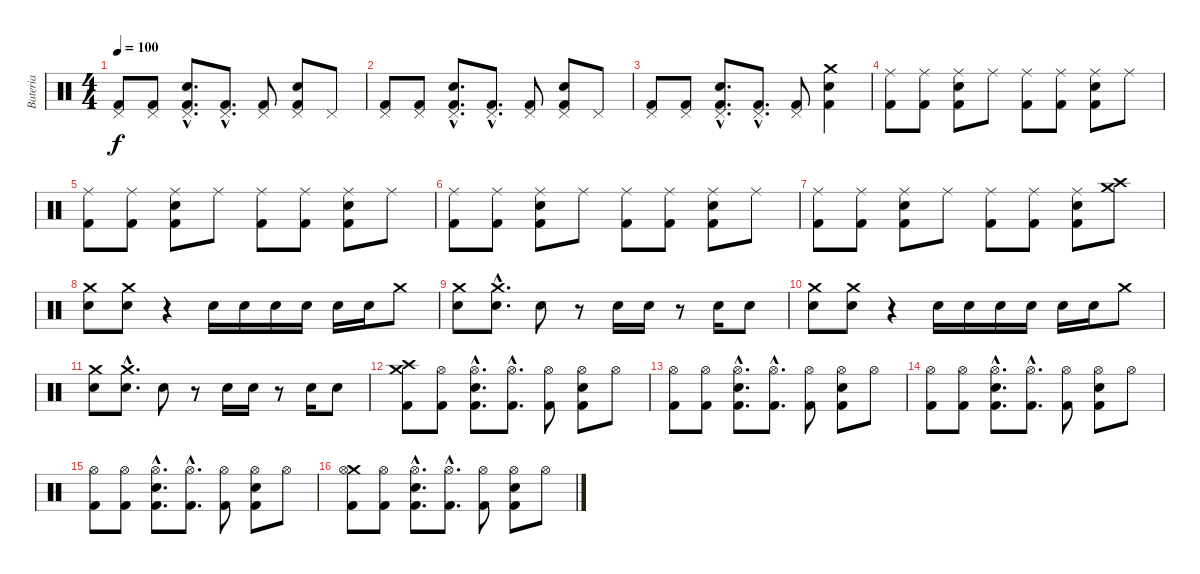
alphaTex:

\track ("Bateria" "Bateria") {instrument percussion}
\staff {score}
\articulation defaults
\ts (4 4)
\tempo 100
\clef neutral
\ks c
("Kick (hit) 2" "Pedal Hi-Hat (hit)").8{dy f} ("Kick (hit) 2" "Pedal Hi-Hat (hit)").8 ("Kick (hit) 2"{hac} "Electric Snare (hit)"{hac} "Pedal Hi-Hat (hit)"{hac}).8{d} ("Kick (hit) 2"{hac} "Pedal Hi-Hat (hit)"{hac}).8{d} ("Kick (hit) 2" "Pedal Hi-Hat (hit)").8 ("Kick (hit) 2" "Electric Snare (hit)" "Pedal Hi-Hat (hit)").8 "Pedal Hi-Hat (hit)".8 |
("Kick (hit) 2" "Pedal Hi-Hat (hit)").8 ("Kick (hit) 2" "Pedal Hi-Hat (hit)").8 ("Kick (hit) 2"{hac} "Electric Snare (hit)"{hac} "Pedal Hi-Hat (hit)"{hac}).8{d} ("Kick (hit) 2"{hac} "Pedal Hi-Hat (hit)"{hac}).8{d} ("Kick (hit) 2" "Pedal Hi-Hat (hit)").8 ("Kick (hit) 2" "Electric Snare (hit)" "Pedal Hi-Hat (hit)").8 "Pedal Hi-Hat (hit)".8 |
("Kick (hit) 2" "Pedal Hi-Hat (hit)").8 ("Kick (hit) 2" "Pedal Hi-Hat (hit)").8 ("Kick (hit) 2"{hac} "Electric Snare (hit)"{hac} "Pedal Hi-Hat (hit)"{hac}).8{d} ("Kick (hit) 2"{hac} "Pedal Hi-Hat (hit)"{hac}).8{d} ("Kick (hit) 2" "Pedal Hi-Hat (hit)").8 ("Kick (hit) 2" "Electric Snare (hit)" "Crash medium (hit)").4 |
("Kick (hit) 2" "Ride (middle)").8 ("Kick (hit) 2" "Ride (middle)").8 ("Kick (hit) 2" "Electric Snare (hit)" "Ride (middle)").8 "Ride (middle)".8 ("Kick (hit) 2" "Ride (middle)").8 ("Kick (hit) 2" "Ride (middle)").8 ("Kick (hit) 2" "Electric Snare (hit)" "Ride (middle)").8 "Ride (middle)".8 |
("Kick (hit) 2" "Ride (middle)").8 ("Kick (hit) 2" "Ride (middle)").8 ("Kick (hit) 2" "Electric Snare (hit)" "Ride (middle)").8 "Ride (middle)".8 ("Kick (hit) 2" "Ride (middle)").8 ("Kick (hit) 2" "Ride (middle)").8 ("Kick (hit) 2" "Electric Snare (hit)" "Ride (middle)").8 "Ride (middle)".8 |
("Kick (hit) 2" "Ride (middle)").8 ("Kick (hit) 2" "Ride (middle)").8 ("Kick (hit) 2" "Electric Snare (hit)" "Ride (middle)").8 "Ride (middle)".8 ("Kick (hit) 2" "Ride (middle)").8 ("Kick (hit) 2" "Ride (middle)").8 ("Kick (hit) 2" "Electric Snare (hit)" "Ride (middle)").8 "Ride (middle)".8 |
("Kick (hit) 2" "Ride (middle)").8 ("Kick (hit) 2" "Ride (middle)").8 ("Kick (hit) 2" "Electric Snare (hit)" "Ride (middle)").8 "Ride (middle)".8 ("Kick (hit) 2" "Ride (middle)").8 ("Kick (hit) 2" "Ride (middle)").8 ("Kick (hit) 2" "Electric Snare (hit)" "Ride (middle)").8 ("Crash high (hit)" "Crash medium (hit)").8 |
("Crash medium (hit)" "Electric Snare (hit)").8 ("Crash medium (hit)" "Electric Snare (hit)").8 r.4 "Electric Snare (hit)".16 "Electric Snare (hit)".16 "Electric Snare (hit)".16 "Electric Snare (hit)".16 "Electric Snare (hit)".16 "Electric Snare (hit)".16 "Crash medium (hit)".8 |
("Crash medium (hit)" "Electric Snare (hit)").8 ("Crash medium (hit)"{hac} "Electric Snare (hit)"{hac}).8{d} "Electric Snare (hit)".8 r.8 "Electric Snare (hit)".16 "Electric Snare (hit)".16 r.8 "Electric Snare (hit)".16 "Electric Snare (hit)".8 |
("Crash medium (hit)" "Electric Snare (hit)").8 ("Crash medium (hit)" "Electric Snare (hit)").8 r.4 "Electric Snare (hit)".16 "Electric Snare (hit)".16 "Electric Snare (hit)".16 "Electric Snare (hit)".16 "Electric Snare (hit)".16 "Electric Snare (hit)".16 "Crash medium (hit)".8 |
("Crash medium (hit)" "Electric Snare (hit)").8 ("Crash medium (hit)"{hac} "Electric Snare (hit)"{hac}).8{d} "Electric Snare (hit)".8 r.8 "Electric Snare (hit)".16 "Electric Snare (hit)".16 r.8 "Electric Snare (hit)".16 "Electric Snare (hit)".8 |
("Kick (hit) 2" "Crash medium (hit)" "Crash high (hit)").8 ("Kick (hit) 2" "Hi-Hat (open)").8 ("Kick (hit) 2"{hac} "Electric Snare (hit)"{hac} "Hi-Hat (open)"{hac}).8{d} ("Kick (hit) 2"{hac} "Hi-Hat (open)"{hac}).8{d} ("Kick (hit) 2" "Hi-Hat (open)").8 ("Kick (hit) 2" "Electric Snare (hit)" "Hi-Hat (open)").8 "Hi-Hat (open)".8 |
("Kick (hit) 2" "Hi-Hat (open)").8 ("Kick (hit) 2" "Hi-Hat (open)").8 ("Kick (hit) 2"{hac} "Electric Snare (hit)"{hac} "Hi-Hat (open)"{hac}).8{d} ("Kick (hit) 2"{hac} "Hi-Hat (open)"{hac}).8{d} ("Kick (hit) 2" "Hi-Hat (open)").8 ("Kick (hit) 2" "Electric Snare (hit)" "Hi-Hat (open)").8 "Hi-Hat (open)".8 |
("Kick (hit) 2" "Hi-Hat (open)").8 ("Kick (hit) 2" "Hi-Hat (open)").8 ("Kick (hit) 2"{hac} "Electric Snare (hit)"{hac} "Hi-Hat (open)"{hac}).8{d} ("Kick (hit) 2"{hac} "Hi-Hat (open)"{hac}).8{d} ("Kick (hit) 2" "Hi-Hat (open)").8 ("Kick (hit) 2" "Electric Snare (hit)" "Hi-Hat (open)").8 "Hi-Hat (open)".8 |
("Kick (hit) 2" "Hi-Hat (open)").8 ("Kick (hit) 2" "Hi-Hat (open)").8 ("Kick (hit) 2"{hac} "Electric Snare (hit)"{hac} "Hi-Hat (open)"{hac}).8{d} ("Kick (hit) 2"{hac} "Hi-Hat (open)"{hac}).8{d} ("Kick (hit) 2" "Hi-Hat (open)").8 ("Kick (hit) 2" "Electric Snare (hit)" "Hi-Hat (open)").8 "Hi-Hat (open)".8 |
("Kick (hit) 2" "Crash medium (hit)" "Hi-Hat (open)").8 ("Kick (hit) 2" "Hi-Hat (open)").8 ("Kick (hit) 2"{hac} "Electric Snare (hit)"{hac} "Hi-Hat (open)"{hac}).8{d} ("Kick (hit) 2"{hac} "Hi-Hat (open)"{hac}).8{d} ("Kick (hit) 2" "Hi-Hat (open)").8 ("Kick (hit) 2" "Electric Snare (hit)" "Hi-Hat (open)").8 "Hi-Hat (open)".8
